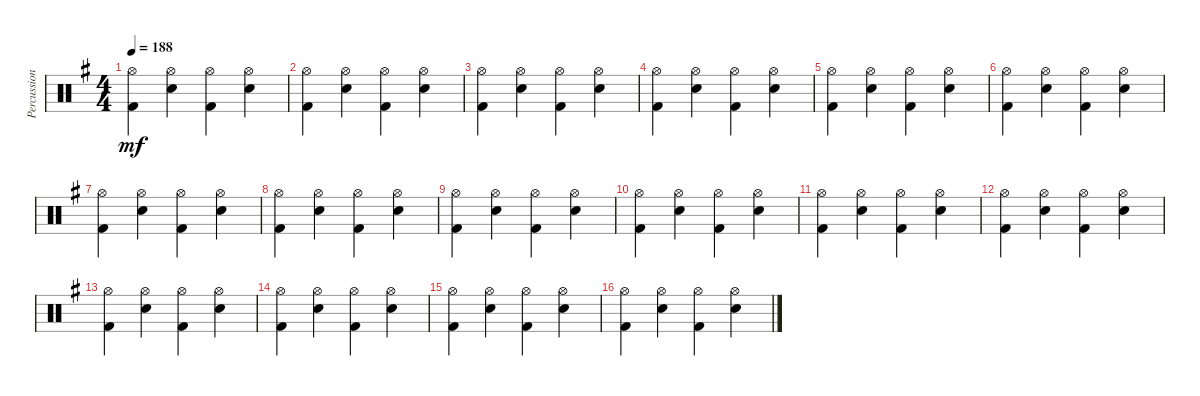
\track ("Percussion" "Percussion") {instrument percussion}
\staff {score}
\articulation defaults
\ts (4 4)
\tempo 188
\clef neutral
\ks g
("Hi-Hat (open)" "Kick (hit) 2").4{dy mf} ("Hi-Hat (open)" "Snare (hit) 2").4 ("Hi-Hat (open)" "Kick (hit) 2").4 ("Hi-Hat (open)" "Snare (hit) 2").4 |
("Hi-Hat (open)" "Kick (hit) 2").4 ("Hi-Hat (open)" "Snare (hit) 2").4 ("Hi-Hat (open)" "Kick (hit) 2").4 ("Hi-Hat (open)" "Snare (hit) 2").4 |
("Hi-Hat (open)" "Kick (hit) 2").4 ("Hi-Hat (open)" "Snare (hit) 2").4 ("Hi-Hat (open)" "Kick (hit) 2").4 ("Hi-Hat (open)" "Snare (hit) 2").4 |
("Hi-Hat (open)" "Kick (hit) 2").4 ("Hi-Hat (open)" "Snare (hit) 2").4 ("Hi-Hat (open)" "Kick (hit) 2").4 ("Hi-Hat (open)" "Snare (hit) 2").4 |
("Hi-Hat (open)" "Kick (hit) 2").4 ("Hi-Hat (open)" "Snare (hit) 2").4 ("Hi-Hat (open)" "Kick (hit) 2").4 ("Hi-Hat (open)" "Snare (hit) 2").4 |
("Hi-Hat (open)" "Kick (hit) 2").4 ("Hi-Hat (open)" "Snare (hit) 2").4 ("Hi-Hat (open)" "Kick (hit) 2").4 ("Hi-Hat (open)" "Snare (hit) 2").4 |
("Hi-Hat (open)" "Kick (hit) 2").4 ("Hi-Hat (open)" "Snare (hit) 2").4 ("Hi-Hat (open)" "Kick (hit) 2").4 ("Hi-Hat (open)" "Snare (hit) 2").4 |
("Hi-Hat (open)" "Kick (hit) 2").4 ("Hi-Hat (open)" "Snare (hit) 2").4 ("Hi-Hat (open)" "Kick (hit) 2").4 ("Hi-Hat (open)" "Snare (hit) 2").4 |
("Hi-Hat (open)" "Kick (hit) 2").4 ("Hi-Hat (open)" "Snare (hit) 2").4 ("Hi-Hat (open)" "Kick (hit) 2").4 ("Hi-Hat (open)" "Snare (hit) 2").4 |
("Hi-Hat (open)" "Kick (hit) 2").4 ("Hi-Hat (open)" "Snare (hit) 2").4 ("Hi-Hat (open)" "Kick (hit) 2").4 ("Hi-Hat (open)" "Snare (hit) 2").4 |
("Hi-Hat (open)" "Kick (hit) 2").4 ("Hi-Hat (open)" "Snare (hit) 2").4 ("Hi-Hat (open)" "Kick (hit) 2").4 ("Hi-Hat (open)" "Snare (hit) 2").4 |
("Hi-Hat (open)" "Kick (hit) 2").4 ("Hi-Hat (open)" "Snare (hit) 2").4 ("Hi-Hat (open)" "Kick (hit) 2").4 ("Hi-Hat (open)" "Snare (hit) 2").4 |
("Hi-Hat (open)" "Kick (hit) 2").4 ("Hi-Hat (open)" "Snare (hit) 2").4 ("Hi-Hat (open)" "Kick (hit) 2").4 ("Hi-Hat (open)" "Snare (hit) 2").4 |
("Hi-Hat (open)" "Kick (hit) 2").4 ("Hi-Hat (open)" "Snare (hit) 2").4 ("Hi-Hat (open)" "Kick (hit) 2").4 ("Hi-Hat (open)" "Snare (hit) 2").4 |
("Hi-Hat (open)" "Kick (hit) 2").4 ("Hi-Hat (open)" "Snare (hit) 2").4 ("Hi-Hat (open)" "Kick (hit) 2").4 ("Hi-Hat (open)" "Snare (hit) 2").4 |
("Hi-Hat (open)" "Kick (hit) 2").4 ("Hi-Hat (open)" "Snare (hit) 2").4 ("Hi-Hat (open)" "Kick (hit) 2").4 ("Hi-Hat (open)" "Snare (hit) 2").4
